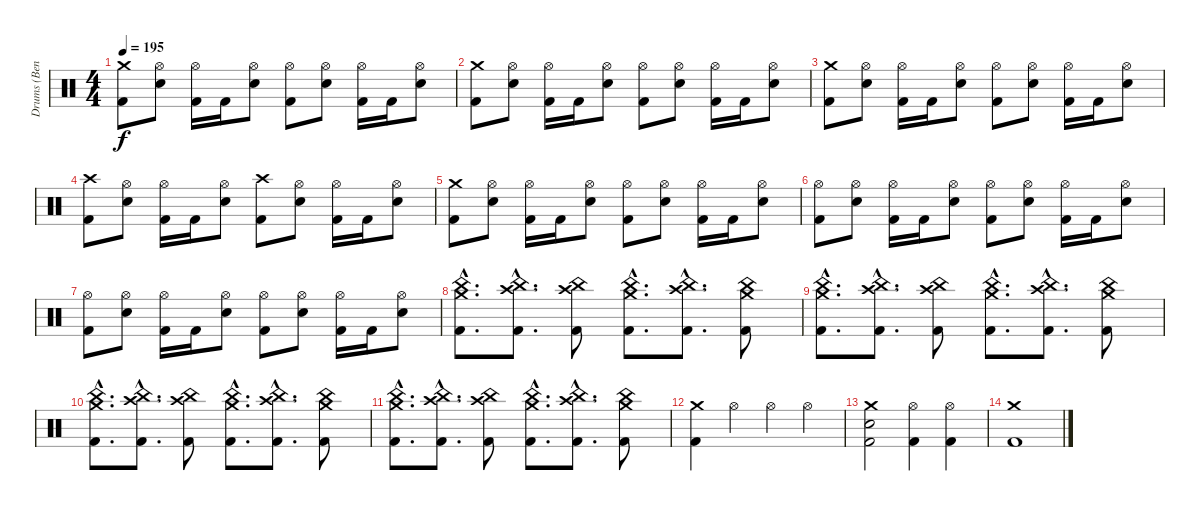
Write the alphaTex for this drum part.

\track ("Drums (Ben)" "Drums (Ben") {instrument percussion}
\staff {score}
\articulation defaults
\ts (4 4)
\tempo 195
\clef neutral
\ks c
("Crash medium (hit)" "Kick (hit) 2").8{dy f} ("Hi-Hat (open)" "Snare (hit) 2").8 ("Hi-Hat (open)" "Kick (hit) 2").16 "Kick (hit) 2".16 ("Hi-Hat (open)" "Snare (hit) 2").8 ("Hi-Hat (open)" "Kick (hit) 2").8 ("Hi-Hat (open)" "Snare (hit) 2").8 ("Hi-Hat (open)" "Kick (hit) 2").16 "Kick (hit) 2".16 ("Hi-Hat (open)" "Snare (hit) 2").8 |
("Crash medium (hit)" "Kick (hit) 2").8 ("Hi-Hat (open)" "Snare (hit) 2").8 ("Hi-Hat (open)" "Kick (hit) 2").16 "Kick (hit) 2".16 ("Hi-Hat (open)" "Snare (hit) 2").8 ("Hi-Hat (open)" "Kick (hit) 2").8 ("Hi-Hat (open)" "Snare (hit) 2").8 ("Hi-Hat (open)" "Kick (hit) 2").16 "Kick (hit) 2".16 ("Hi-Hat (open)" "Snare (hit) 2").8 |
("Crash medium (hit)" "Kick (hit) 2").8 ("Hi-Hat (open)" "Snare (hit) 2").8 ("Hi-Hat (open)" "Kick (hit) 2").16 "Kick (hit) 2".16 ("Hi-Hat (open)" "Snare (hit) 2").8 ("Hi-Hat (open)" "Kick (hit) 2").8 ("Hi-Hat (open)" "Snare (hit) 2").8 ("Hi-Hat (open)" "Kick (hit) 2").16 "Kick (hit) 2".16 ("Hi-Hat (open)" "Snare (hit) 2").8 |
("Crash high (hit)" "Kick (hit) 2").8 ("Hi-Hat (open)" "Snare (hit) 2").8 ("Hi-Hat (open)" "Kick (hit) 2").16 "Kick (hit) 2".16 ("Hi-Hat (open)" "Snare (hit) 2").8 ("Crash high (hit)" "Kick (hit) 2").8 ("Hi-Hat (open)" "Snare (hit) 2").8 ("Hi-Hat (open)" "Kick (hit) 2").16 "Kick (hit) 2".16 ("Hi-Hat (open)" "Snare (hit) 2").8 |
("Crash medium (hit)" "Kick (hit) 2").8 ("Hi-Hat (open)" "Snare (hit) 2").8 ("Hi-Hat (open)" "Kick (hit) 2").16 "Kick (hit) 2".16 ("Hi-Hat (open)" "Snare (hit) 2").8 ("Hi-Hat (open)" "Kick (hit) 2").8 ("Hi-Hat (open)" "Snare (hit) 2").8 ("Hi-Hat (open)" "Kick (hit) 2").16 "Kick (hit) 2".16 ("Hi-Hat (open)" "Snare (hit) 2").8 |
("Hi-Hat (open)" "Kick (hit) 2").8 ("Hi-Hat (open)" "Snare (hit) 2").8 ("Hi-Hat (open)" "Kick (hit) 2").16 "Kick (hit) 2".16 ("Hi-Hat (open)" "Snare (hit) 2").8 ("Hi-Hat (open)" "Kick (hit) 2").8 ("Hi-Hat (open)" "Snare (hit) 2").8 ("Hi-Hat (open)" "Kick (hit) 2").16 "Kick (hit) 2".16 ("Hi-Hat (open)" "Snare (hit) 2").8 |
("Hi-Hat (open)" "Kick (hit) 2").8 ("Hi-Hat (open)" "Snare (hit) 2").8 ("Hi-Hat (open)" "Kick (hit) 2").16 "Kick (hit) 2".16 ("Hi-Hat (open)" "Snare (hit) 2").8 ("Hi-Hat (open)" "Kick (hit) 2").8 ("Hi-Hat (open)" "Snare (hit) 2").8 ("Hi-Hat (open)" "Kick (hit) 2").16 "Kick (hit) 2".16 ("Hi-Hat (open)" "Snare (hit) 2").8 |
("Crash medium (hit)"{hac} "China (hit)"{hac} "Kick (hit) 2"{hac}).8{d} ("Crash high (hit)"{hac} "China (hit)"{hac} "Kick (hit) 2"{hac}).8{d} ("Crash high (hit)" "China (hit)" "Kick (hit) 2").8 ("Crash medium (hit)"{hac} "China (hit)"{hac} "Kick (hit) 2"{hac}).8{d} ("Crash high (hit)"{hac} "China (hit)"{hac} "Kick (hit) 2"{hac}).8{d} ("Crash medium (hit)" "China (hit)" "Kick (hit) 2").8 |
("Crash medium (hit)"{hac} "China (hit)"{hac} "Kick (hit) 2"{hac}).8{d} ("Crash high (hit)"{hac} "China (hit)"{hac} "Kick (hit) 2"{hac}).8{d} ("Crash high (hit)" "China (hit)" "Kick (hit) 2").8 ("Crash medium (hit)"{hac} "China (hit)"{hac} "Kick (hit) 2"{hac}).8{d} ("Crash high (hit)"{hac} "China (hit)"{hac} "Kick (hit) 2"{hac}).8{d} ("Crash medium (hit)" "China (hit)" "Kick (hit) 2").8 |
("Crash medium (hit)"{hac} "China (hit)"{hac} "Kick (hit) 2"{hac}).8{d} ("Crash high (hit)"{hac} "China (hit)"{hac} "Kick (hit) 2"{hac}).8{d} ("Crash high (hit)" "China (hit)" "Kick (hit) 2").8 ("Crash medium (hit)"{hac} "China (hit)"{hac} "Kick (hit) 2"{hac}).8{d} ("Crash high (hit)"{hac} "China (hit)"{hac} "Kick (hit) 2"{hac}).8{d} ("Crash medium (hit)" "China (hit)" "Kick (hit) 2").8 |
("Crash medium (hit)"{hac} "China (hit)"{hac} "Kick (hit) 2"{hac}).8{d} ("Crash high (hit)"{hac} "China (hit)"{hac} "Kick (hit) 2"{hac}).8{d} ("Crash high (hit)" "China (hit)" "Kick (hit) 2").8 ("Crash medium (hit)"{hac} "China (hit)"{hac} "Kick (hit) 2"{hac}).8{d} ("Crash high (hit)"{hac} "China (hit)"{hac} "Kick (hit) 2"{hac}).8{d} ("Crash medium (hit)" "China (hit)" "Kick (hit) 2").8 |
("Crash medium (hit)" "Kick (hit) 2").4 "Hi-Hat (open)".4 "Hi-Hat (open)".4 "Hi-Hat (open)".4 |
("Crash medium (hit)" "Snare (hit) 2" "Kick (hit) 2").2 ("Hi-Hat (open)" "Kick (hit) 2").4 ("Hi-Hat (open)" "Kick (hit) 2").4 |
("Crash medium (hit)" "Kick (hit) 2").1
